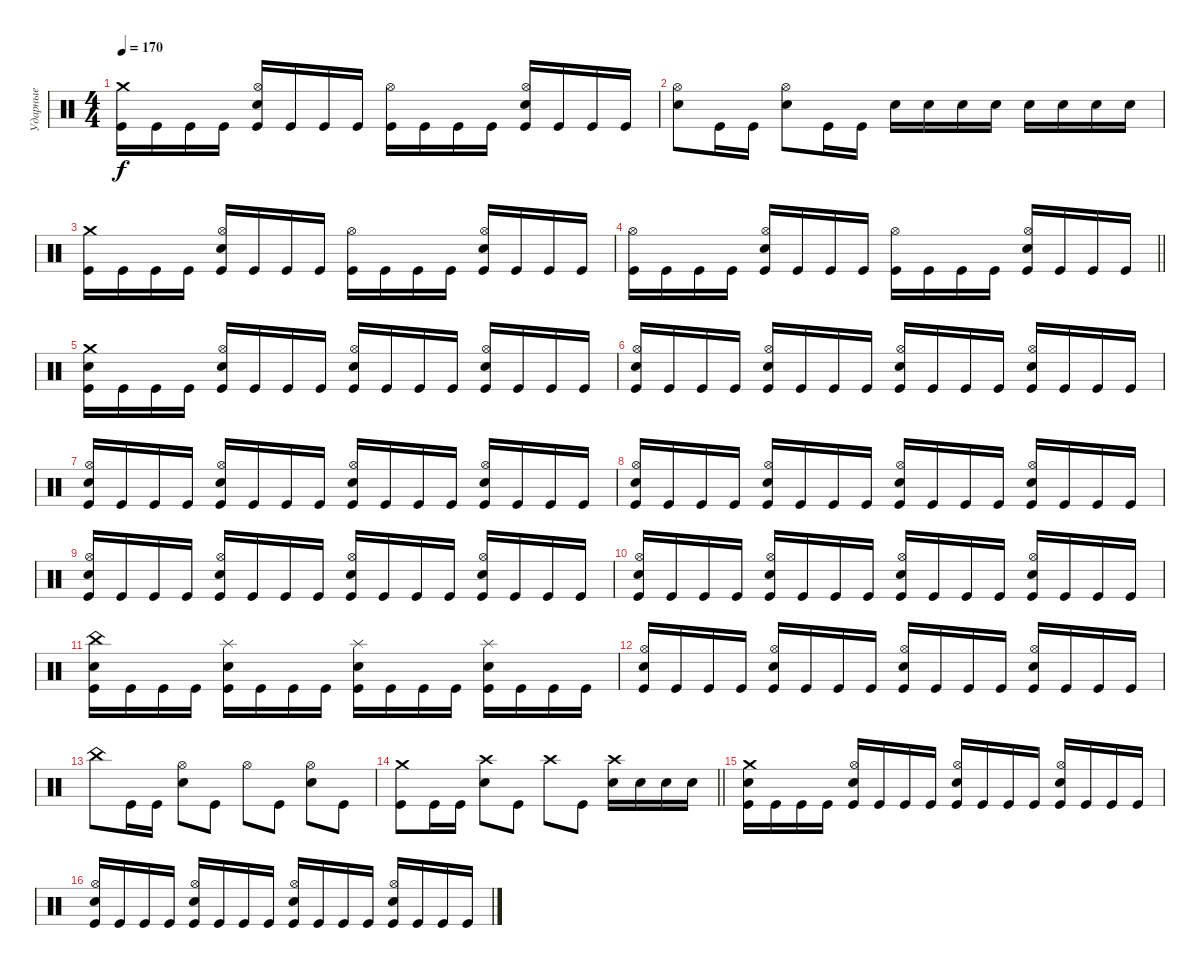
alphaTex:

\track ("Ударные" "Ударные") {instrument percussion}
\staff {score}
\articulation defaults
\ts (4 4)
\section ("" "")
\tempo 170
\clef neutral
\ks c
("Crash medium (hit)" "Kick (hit)").16{dy f} "Kick (hit)".16 "Kick (hit)".16 "Kick (hit)".16 ("Hi-Hat (open)" "Electric Snare (hit)" "Kick (hit)").16 "Kick (hit)".16 "Kick (hit)".16 "Kick (hit)".16 ("Hi-Hat (open)" "Kick (hit)").16 "Kick (hit)".16 "Kick (hit)".16 "Kick (hit)".16 ("Hi-Hat (open)" "Electric Snare (hit)" "Kick (hit)").16 "Kick (hit)".16 "Kick (hit)".16 "Kick (hit)".16 |
("Hi-Hat (open)" "Electric Snare (hit)").8 "Kick (hit)".16 "Kick (hit)".16 ("Hi-Hat (open)" "Electric Snare (hit)").8 "Kick (hit)".16 "Kick (hit)".16 "Electric Snare (hit)".16 "Electric Snare (hit)".16 "Electric Snare (hit)".16 "Electric Snare (hit)".16 "Electric Snare (hit)".16 "Electric Snare (hit)".16 "Electric Snare (hit)".16 "Electric Snare (hit)".16 |
("Crash medium (hit)" "Kick (hit)").16 "Kick (hit)".16 "Kick (hit)".16 "Kick (hit)".16 ("Hi-Hat (open)" "Electric Snare (hit)" "Kick (hit)").16 "Kick (hit)".16 "Kick (hit)".16 "Kick (hit)".16 ("Hi-Hat (open)" "Kick (hit)").16 "Kick (hit)".16 "Kick (hit)".16 "Kick (hit)".16 ("Hi-Hat (open)" "Electric Snare (hit)" "Kick (hit)").16 "Kick (hit)".16 "Kick (hit)".16 "Kick (hit)".16 |
\barLineRight lightlight
("Hi-Hat (open)" "Kick (hit)").16 "Kick (hit)".16 "Kick (hit)".16 "Kick (hit)".16 ("Hi-Hat (open)" "Electric Snare (hit)" "Kick (hit)").16 "Kick (hit)".16 "Kick (hit)".16 "Kick (hit)".16 ("Hi-Hat (open)" "Kick (hit)").16 "Kick (hit)".16 "Kick (hit)".16 "Kick (hit)".16 ("Hi-Hat (open)" "Electric Snare (hit)" "Kick (hit)").16 "Kick (hit)".16 "Kick (hit)".16 "Kick (hit)".16 |
\section ("" "")
("Crash medium (hit)" "Electric Snare (hit)" "Kick (hit)").16 "Kick (hit)".16 "Kick (hit)".16 "Kick (hit)".16 ("Hi-Hat (open)" "Electric Snare (hit)" "Kick (hit)").16 "Kick (hit)".16 "Kick (hit)".16 "Kick (hit)".16 ("Hi-Hat (open)" "Electric Snare (hit)" "Kick (hit)").16 "Kick (hit)".16 "Kick (hit)".16 "Kick (hit)".16 ("Hi-Hat (open)" "Electric Snare (hit)" "Kick (hit)").16 "Kick (hit)".16 "Kick (hit)".16 "Kick (hit)".16 |
("Hi-Hat (open)" "Electric Snare (hit)" "Kick (hit)").16 "Kick (hit)".16 "Kick (hit)".16 "Kick (hit)".16 ("Hi-Hat (open)" "Electric Snare (hit)" "Kick (hit)").16 "Kick (hit)".16 "Kick (hit)".16 "Kick (hit)".16 ("Hi-Hat (open)" "Electric Snare (hit)" "Kick (hit)").16 "Kick (hit)".16 "Kick (hit)".16 "Kick (hit)".16 ("Hi-Hat (open)" "Electric Snare (hit)" "Kick (hit)").16 "Kick (hit)".16 "Kick (hit)".16 "Kick (hit)".16 |
("Hi-Hat (open)" "Electric Snare (hit)" "Kick (hit)").16 "Kick (hit)".16 "Kick (hit)".16 "Kick (hit)".16 ("Hi-Hat (open)" "Electric Snare (hit)" "Kick (hit)").16 "Kick (hit)".16 "Kick (hit)".16 "Kick (hit)".16 ("Hi-Hat (open)" "Electric Snare (hit)" "Kick (hit)").16 "Kick (hit)".16 "Kick (hit)".16 "Kick (hit)".16 ("Hi-Hat (open)" "Electric Snare (hit)" "Kick (hit)").16 "Kick (hit)".16 "Kick (hit)".16 "Kick (hit)".16 |
("Hi-Hat (open)" "Electric Snare (hit)" "Kick (hit)").16 "Kick (hit)".16 "Kick (hit)".16 "Kick (hit)".16 ("Hi-Hat (open)" "Electric Snare (hit)" "Kick (hit)").16 "Kick (hit)".16 "Kick (hit)".16 "Kick (hit)".16 ("Hi-Hat (open)" "Electric Snare (hit)" "Kick (hit)").16 "Kick (hit)".16 "Kick (hit)".16 "Kick (hit)".16 ("Hi-Hat (open)" "Electric Snare (hit)" "Kick (hit)").16 "Kick (hit)".16 "Kick (hit)".16 "Kick (hit)".16 |
("Hi-Hat (open)" "Electric Snare (hit)" "Kick (hit)").16 "Kick (hit)".16 "Kick (hit)".16 "Kick (hit)".16 ("Hi-Hat (open)" "Electric Snare (hit)" "Kick (hit)").16 "Kick (hit)".16 "Kick (hit)".16 "Kick (hit)".16 ("Hi-Hat (open)" "Electric Snare (hit)" "Kick (hit)").16 "Kick (hit)".16 "Kick (hit)".16 "Kick (hit)".16 ("Hi-Hat (open)" "Electric Snare (hit)" "Kick (hit)").16 "Kick (hit)".16 "Kick (hit)".16 "Kick (hit)".16 |
("Hi-Hat (open)" "Electric Snare (hit)" "Kick (hit)").16 "Kick (hit)".16 "Kick (hit)".16 "Kick (hit)".16 ("Hi-Hat (open)" "Electric Snare (hit)" "Kick (hit)").16 "Kick (hit)".16 "Kick (hit)".16 "Kick (hit)".16 ("Hi-Hat (open)" "Electric Snare (hit)" "Kick (hit)").16 "Kick (hit)".16 "Kick (hit)".16 "Kick (hit)".16 ("Hi-Hat (open)" "Electric Snare (hit)" "Kick (hit)").16 "Kick (hit)".16 "Kick (hit)".16 "Kick (hit)".16 |
("China (hit)" "Electric Snare (hit)" "Kick (hit)").16 "Kick (hit)".16 "Kick (hit)".16 "Kick (hit)".16 ("Splash (hit)" "Electric Snare (hit)" "Kick (hit)").16 "Kick (hit)".16 "Kick (hit)".16 "Kick (hit)".16 ("Splash (hit)" "Electric Snare (hit)" "Kick (hit)").16 "Kick (hit)".16 "Kick (hit)".16 "Kick (hit)".16 ("Splash (hit)" "Electric Snare (hit)" "Kick (hit)").16 "Kick (hit)".16 "Kick (hit)".16 "Kick (hit)".16 |
("Hi-Hat (open)" "Electric Snare (hit)" "Kick (hit)").16 "Kick (hit)".16 "Kick (hit)".16 "Kick (hit)".16 ("Hi-Hat (open)" "Electric Snare (hit)" "Kick (hit)").16 "Kick (hit)".16 "Kick (hit)".16 "Kick (hit)".16 ("Hi-Hat (open)" "Electric Snare (hit)" "Kick (hit)").16 "Kick (hit)".16 "Kick (hit)".16 "Kick (hit)".16 ("Hi-Hat (open)" "Electric Snare (hit)" "Kick (hit)").16 "Kick (hit)".16 "Kick (hit)".16 "Kick (hit)".16 |
"China (hit)".8 "Kick (hit)".16 "Kick (hit)".16 ("Hi-Hat (open)" "Electric Snare (hit)").8 "Kick (hit)".8 "Hi-Hat (open)".8 "Kick (hit)".8 ("Hi-Hat (open)" "Electric Snare (hit)").8 "Kick (hit)".8 |
\barLineRight lightlight
("Crash medium (hit)" "Kick (hit)").8 "Kick (hit)".16 "Kick (hit)".16 ("Crash high (hit)" "Electric Snare (hit)").8 "Kick (hit)".8 "Crash high (hit)".8 "Kick (hit)".8 ("Crash high (hit)" "Electric Snare (hit)").16 "Electric Snare (hit)".16 "Electric Snare (hit)".16 "Electric Snare (hit)".16 |
("Crash medium (hit)" "Electric Snare (hit)" "Kick (hit)").16 "Kick (hit)".16 "Kick (hit)".16 "Kick (hit)".16 ("Hi-Hat (open)" "Electric Snare (hit)" "Kick (hit)").16 "Kick (hit)".16 "Kick (hit)".16 "Kick (hit)".16 ("Hi-Hat (open)" "Electric Snare (hit)" "Kick (hit)").16 "Kick (hit)".16 "Kick (hit)".16 "Kick (hit)".16 ("Hi-Hat (open)" "Electric Snare (hit)" "Kick (hit)").16 "Kick (hit)".16 "Kick (hit)".16 "Kick (hit)".16 |
("Hi-Hat (open)" "Electric Snare (hit)" "Kick (hit)").16 "Kick (hit)".16 "Kick (hit)".16 "Kick (hit)".16 ("Hi-Hat (open)" "Electric Snare (hit)" "Kick (hit)").16 "Kick (hit)".16 "Kick (hit)".16 "Kick (hit)".16 ("Hi-Hat (open)" "Electric Snare (hit)" "Kick (hit)").16 "Kick (hit)".16 "Kick (hit)".16 "Kick (hit)".16 ("Hi-Hat (open)" "Electric Snare (hit)" "Kick (hit)").16 "Kick (hit)".16 "Kick (hit)".16 "Kick (hit)".16
